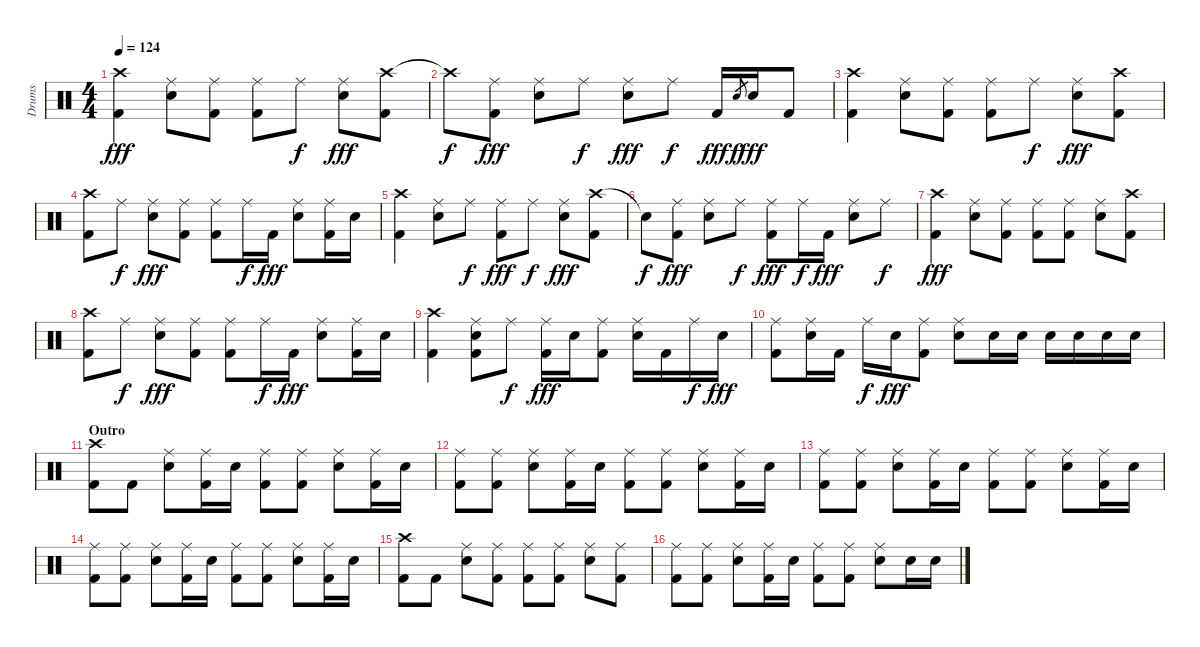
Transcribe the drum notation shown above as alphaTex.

\track ("Drums" "Drums") {instrument percussion}
\staff {score}
\articulation defaults
\ts (4 4)
\tempo 124
\clef neutral
\ks c
("Crash high (hit)" "Kick (hit) 2").4{dy fff} ("Ride (middle)" "Electric Snare (hit)").8 ("Ride (middle)" "Kick (hit) 2").8 ("Ride (middle)" "Kick (hit) 2").8 "Ride (middle)".8{dy f} ("Ride (middle)" "Electric Snare (hit)").8{dy fff} ("Crash high (hit)" "Kick (hit) 2").8 |
"Crash high (hit)"{t}.8{dy f} ("Ride (middle)" "Kick (hit) 2").8{dy fff} ("Ride (middle)" "Electric Snare (hit)").8 "Ride (middle)".8{dy f} ("Ride (middle)" "Electric Snare (hit)").8{dy fff} "Ride (middle)".8{dy f} "Kick (hit) 2".16{dy fff} "Electric Snare (hit)".8{gr dy f} "Electric Snare (hit)".16{dy fff} "Kick (hit) 2".8 |
("Crash high (hit)" "Kick (hit) 2").4 ("Ride (middle)" "Electric Snare (hit)").8 ("Ride (middle)" "Kick (hit) 2").8 ("Ride (middle)" "Kick (hit) 2").8 "Ride (middle)".8{dy f} ("Ride (middle)" "Electric Snare (hit)").8{dy fff} ("Crash high (hit)" "Kick (hit) 2").8 |
("Crash high (hit)" "Kick (hit) 2").8 "Ride (middle)".8{dy f} ("Ride (middle)" "Electric Snare (hit)").8{dy fff} ("Ride (middle)" "Kick (hit) 2").8 ("Ride (middle)" "Kick (hit) 2").8 "Ride (middle)".16{dy f} "Kick (hit) 2".16{dy fff} ("Ride (middle)" "Electric Snare (hit)").8 ("Ride (middle)" "Kick (hit) 2").16 "Electric Snare (hit)".16 |
("Crash high (hit)" "Kick (hit) 2").4 ("Ride (middle)" "Electric Snare (hit)").8 "Ride (middle)".8{dy f} ("Ride (middle)" "Kick (hit) 2").8{dy fff} "Ride (middle)".8{dy f} ("Ride (middle)" "Electric Snare (hit)").8{dy fff} ("Crash high (hit)" "Kick (hit) 2").8 |
"Snare (hit)"{t}.8{dy f} ("Ride (middle)" "Kick (hit) 2").8{dy fff} ("Ride (middle)" "Electric Snare (hit)").8 "Ride (middle)".8{dy f} ("Ride (middle)" "Kick (hit) 2").8{dy fff} "Ride (middle)".16{dy f} "Kick (hit) 2".16{dy fff} ("Ride (middle)" "Electric Snare (hit)").8 "Ride (middle)".8{dy f} |
("Crash high (hit)" "Kick (hit) 2").4{dy fff} ("Ride (middle)" "Electric Snare (hit)").8 ("Ride (middle)" "Kick (hit) 2").8 ("Ride (middle)" "Kick (hit) 2").8 ("Ride (middle)" "Kick (hit) 2").8 ("Ride (middle)" "Electric Snare (hit)").8 ("Crash high (hit)" "Kick (hit) 2").8 |
("Crash high (hit)" "Kick (hit) 2").8 "Ride (middle)".8{dy f} ("Ride (middle)" "Electric Snare (hit)").8{dy fff} ("Ride (middle)" "Kick (hit) 2").8 ("Ride (middle)" "Kick (hit) 2").8 "Ride (middle)".16{dy f} "Kick (hit) 2".16{dy fff} ("Ride (middle)" "Electric Snare (hit)").8 ("Ride (middle)" "Kick (hit) 2").16 "Electric Snare (hit)".16 |
("Crash high (hit)" "Kick (hit) 2").4 ("Ride (middle)" "Electric Snare (hit)" "Kick (hit) 2").8 "Ride (middle)".8{dy f} ("Ride (middle)" "Kick (hit) 2").16{dy fff} "Electric Snare (hit)".16 ("Ride (middle)" "Kick (hit) 2").8 ("Ride (middle)" "Electric Snare (hit)").16 "Kick (hit) 2".16 "Ride (middle)".16{dy f} "Electric Snare (hit)".16{dy fff} |
("Ride (middle)" "Kick (hit) 2").8 ("Ride (middle)" "Electric Snare (hit)").16 "Kick (hit) 2".16 "Ride (middle)".16{dy f} "Electric Snare (hit)".16{dy fff} ("Ride (middle)" "Kick (hit) 2").8 ("Ride (middle)" "Electric Snare (hit)").8 "Electric Snare (hit)".16 "Electric Snare (hit)".16 "Electric Snare (hit)".16 "Electric Snare (hit)".16 "Electric Snare (hit)".16 "Electric Snare (hit)".16 |
\section ("" "Outro")
("Crash high (hit)" "Kick (hit) 2").8 "Kick (hit) 2".8 ("Ride (middle)" "Electric Snare (hit)").8 ("Ride (middle)" "Kick (hit) 2").16 "Electric Snare (hit)".16 ("Ride (middle)" "Kick (hit) 2").8 ("Ride (middle)" "Kick (hit) 2").8 ("Ride (middle)" "Electric Snare (hit)").8 ("Ride (middle)" "Kick (hit) 2").16 "Electric Snare (hit)".16 |
("Ride (middle)" "Kick (hit) 2").8 ("Ride (middle)" "Kick (hit) 2").8 ("Ride (middle)" "Electric Snare (hit)").8 ("Ride (middle)" "Kick (hit) 2").16 "Electric Snare (hit)".16 ("Ride (middle)" "Kick (hit) 2").8 ("Ride (middle)" "Kick (hit) 2").8 ("Ride (middle)" "Electric Snare (hit)").8 ("Ride (middle)" "Kick (hit) 2").16 "Electric Snare (hit)".16 |
("Ride (middle)" "Kick (hit) 2").8 ("Ride (middle)" "Kick (hit) 2").8 ("Ride (middle)" "Electric Snare (hit)").8 ("Ride (middle)" "Kick (hit) 2").16 "Electric Snare (hit)".16 ("Ride (middle)" "Kick (hit) 2").8 ("Ride (middle)" "Kick (hit) 2").8 ("Ride (middle)" "Electric Snare (hit)").8 ("Ride (middle)" "Kick (hit) 2").16 "Electric Snare (hit)".16 |
("Ride (middle)" "Kick (hit) 2").8 ("Ride (middle)" "Kick (hit) 2").8 ("Ride (middle)" "Electric Snare (hit)").8 ("Ride (middle)" "Kick (hit) 2").16 "Electric Snare (hit)".16 ("Ride (middle)" "Kick (hit) 2").8 ("Ride (middle)" "Kick (hit) 2").8 ("Ride (middle)" "Electric Snare (hit)").8 ("Ride (middle)" "Kick (hit) 2").16 "Electric Snare (hit)".16 |
("Crash high (hit)" "Kick (hit) 2").8 "Kick (hit) 2".8 ("Ride (middle)" "Electric Snare (hit)").8 ("Ride (middle)" "Kick (hit) 2").8 ("Ride (middle)" "Kick (hit) 2").8 ("Ride (middle)" "Kick (hit) 2").8 ("Ride (middle)" "Electric Snare (hit)").8 ("Ride (middle)" "Kick (hit) 2").8 |
("Ride (middle)" "Kick (hit) 2").8 ("Ride (middle)" "Kick (hit) 2").8 ("Ride (middle)" "Electric Snare (hit)").8 ("Ride (middle)" "Kick (hit) 2").16 "Electric Snare (hit)".16 ("Ride (middle)" "Kick (hit) 2").8 ("Ride (middle)" "Kick (hit) 2").8 ("Ride (middle)" "Electric Snare (hit)").8 "Electric Snare (hit)".16 "Electric Snare (hit)".16
